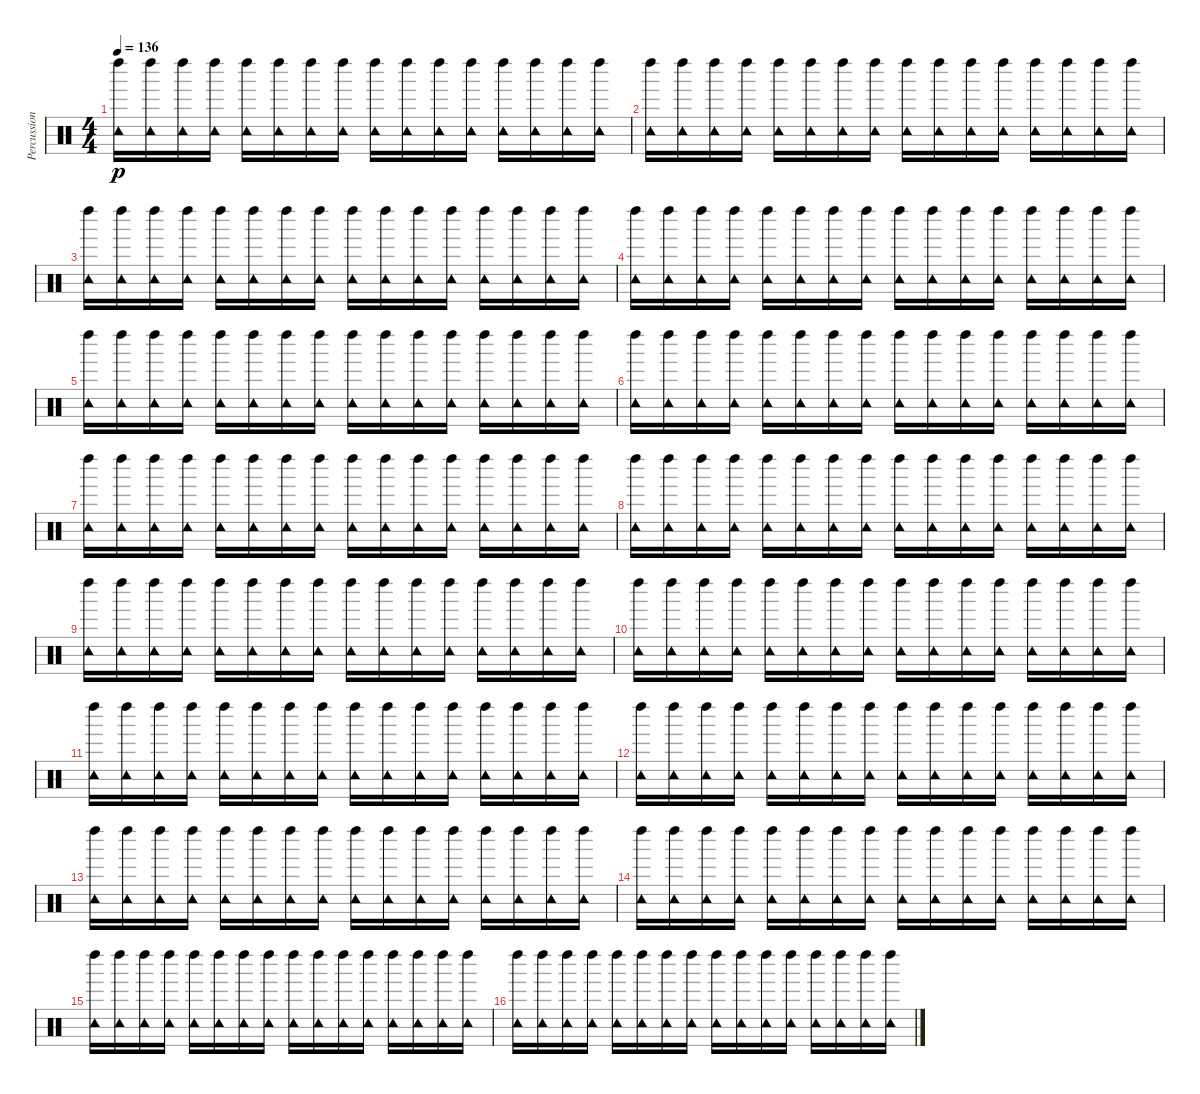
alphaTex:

\track ("Percussion" "Percussion") {instrument percussion}
\staff {score}
\articulation defaults
\ts (4 4)
\tempo 136
\clef neutral
\ks c
("Tambourine (hit)" "Left Maraca (hit)").16{dy p} ("Tambourine (hit)" "Left Maraca (hit)").16 ("Tambourine (hit)" "Left Maraca (hit)").16 ("Tambourine (hit)" "Left Maraca (hit)").16 ("Tambourine (hit)" "Left Maraca (hit)").16 ("Tambourine (hit)" "Left Maraca (hit)").16 ("Tambourine (hit)" "Left Maraca (hit)").16 ("Tambourine (hit)" "Left Maraca (hit)").16 ("Tambourine (hit)" "Left Maraca (hit)").16 ("Tambourine (hit)" "Left Maraca (hit)").16 ("Tambourine (hit)" "Left Maraca (hit)").16 ("Tambourine (hit)" "Left Maraca (hit)").16 ("Tambourine (hit)" "Left Maraca (hit)").16 ("Tambourine (hit)" "Left Maraca (hit)").16 ("Tambourine (hit)" "Left Maraca (hit)").16 ("Tambourine (hit)" "Left Maraca (hit)").16 |
("Tambourine (hit)" "Left Maraca (hit)").16 ("Tambourine (hit)" "Left Maraca (hit)").16 ("Tambourine (hit)" "Left Maraca (hit)").16 ("Tambourine (hit)" "Left Maraca (hit)").16 ("Tambourine (hit)" "Left Maraca (hit)").16 ("Tambourine (hit)" "Left Maraca (hit)").16 ("Tambourine (hit)" "Left Maraca (hit)").16 ("Tambourine (hit)" "Left Maraca (hit)").16 ("Tambourine (hit)" "Left Maraca (hit)").16 ("Tambourine (hit)" "Left Maraca (hit)").16 ("Tambourine (hit)" "Left Maraca (hit)").16 ("Tambourine (hit)" "Left Maraca (hit)").16 ("Tambourine (hit)" "Left Maraca (hit)").16 ("Tambourine (hit)" "Left Maraca (hit)").16 ("Tambourine (hit)" "Left Maraca (hit)").16 ("Tambourine (hit)" "Left Maraca (hit)").16 |
("Tambourine (hit)" "Left Maraca (hit)").16 ("Tambourine (hit)" "Left Maraca (hit)").16 ("Tambourine (hit)" "Left Maraca (hit)").16 ("Tambourine (hit)" "Left Maraca (hit)").16 ("Tambourine (hit)" "Left Maraca (hit)").16 ("Tambourine (hit)" "Left Maraca (hit)").16 ("Tambourine (hit)" "Left Maraca (hit)").16 ("Tambourine (hit)" "Left Maraca (hit)").16 ("Tambourine (hit)" "Left Maraca (hit)").16 ("Tambourine (hit)" "Left Maraca (hit)").16 ("Tambourine (hit)" "Left Maraca (hit)").16 ("Tambourine (hit)" "Left Maraca (hit)").16 ("Tambourine (hit)" "Left Maraca (hit)").16 ("Tambourine (hit)" "Left Maraca (hit)").16 ("Tambourine (hit)" "Left Maraca (hit)").16 ("Tambourine (hit)" "Left Maraca (hit)").16 |
("Tambourine (hit)" "Left Maraca (hit)").16 ("Tambourine (hit)" "Left Maraca (hit)").16 ("Tambourine (hit)" "Left Maraca (hit)").16 ("Tambourine (hit)" "Left Maraca (hit)").16 ("Tambourine (hit)" "Left Maraca (hit)").16 ("Tambourine (hit)" "Left Maraca (hit)").16 ("Tambourine (hit)" "Left Maraca (hit)").16 ("Tambourine (hit)" "Left Maraca (hit)").16 ("Tambourine (hit)" "Left Maraca (hit)").16 ("Tambourine (hit)" "Left Maraca (hit)").16 ("Tambourine (hit)" "Left Maraca (hit)").16 ("Tambourine (hit)" "Left Maraca (hit)").16 ("Tambourine (hit)" "Left Maraca (hit)").16 ("Tambourine (hit)" "Left Maraca (hit)").16 ("Tambourine (hit)" "Left Maraca (hit)").16 ("Tambourine (hit)" "Left Maraca (hit)").16 |
("Tambourine (hit)" "Left Maraca (hit)").16 ("Tambourine (hit)" "Left Maraca (hit)").16 ("Tambourine (hit)" "Left Maraca (hit)").16 ("Tambourine (hit)" "Left Maraca (hit)").16 ("Tambourine (hit)" "Left Maraca (hit)").16 ("Tambourine (hit)" "Left Maraca (hit)").16 ("Tambourine (hit)" "Left Maraca (hit)").16 ("Tambourine (hit)" "Left Maraca (hit)").16 ("Tambourine (hit)" "Left Maraca (hit)").16 ("Tambourine (hit)" "Left Maraca (hit)").16 ("Tambourine (hit)" "Left Maraca (hit)").16 ("Tambourine (hit)" "Left Maraca (hit)").16 ("Tambourine (hit)" "Left Maraca (hit)").16 ("Tambourine (hit)" "Left Maraca (hit)").16 ("Tambourine (hit)" "Left Maraca (hit)").16 ("Tambourine (hit)" "Left Maraca (hit)").16 |
("Tambourine (hit)" "Left Maraca (hit)").16 ("Tambourine (hit)" "Left Maraca (hit)").16 ("Tambourine (hit)" "Left Maraca (hit)").16 ("Tambourine (hit)" "Left Maraca (hit)").16 ("Tambourine (hit)" "Left Maraca (hit)").16 ("Tambourine (hit)" "Left Maraca (hit)").16 ("Tambourine (hit)" "Left Maraca (hit)").16 ("Tambourine (hit)" "Left Maraca (hit)").16 ("Tambourine (hit)" "Left Maraca (hit)").16 ("Tambourine (hit)" "Left Maraca (hit)").16 ("Tambourine (hit)" "Left Maraca (hit)").16 ("Tambourine (hit)" "Left Maraca (hit)").16 ("Tambourine (hit)" "Left Maraca (hit)").16 ("Tambourine (hit)" "Left Maraca (hit)").16 ("Tambourine (hit)" "Left Maraca (hit)").16 ("Tambourine (hit)" "Left Maraca (hit)").16 |
("Tambourine (hit)" "Left Maraca (hit)").16 ("Tambourine (hit)" "Left Maraca (hit)").16 ("Tambourine (hit)" "Left Maraca (hit)").16 ("Tambourine (hit)" "Left Maraca (hit)").16 ("Tambourine (hit)" "Left Maraca (hit)").16 ("Tambourine (hit)" "Left Maraca (hit)").16 ("Tambourine (hit)" "Left Maraca (hit)").16 ("Tambourine (hit)" "Left Maraca (hit)").16 ("Tambourine (hit)" "Left Maraca (hit)").16 ("Tambourine (hit)" "Left Maraca (hit)").16 ("Tambourine (hit)" "Left Maraca (hit)").16 ("Tambourine (hit)" "Left Maraca (hit)").16 ("Tambourine (hit)" "Left Maraca (hit)").16 ("Tambourine (hit)" "Left Maraca (hit)").16 ("Tambourine (hit)" "Left Maraca (hit)").16 ("Tambourine (hit)" "Left Maraca (hit)").16 |
("Tambourine (hit)" "Left Maraca (hit)").16 ("Tambourine (hit)" "Left Maraca (hit)").16 ("Tambourine (hit)" "Left Maraca (hit)").16 ("Tambourine (hit)" "Left Maraca (hit)").16 ("Tambourine (hit)" "Left Maraca (hit)").16 ("Tambourine (hit)" "Left Maraca (hit)").16 ("Tambourine (hit)" "Left Maraca (hit)").16 ("Tambourine (hit)" "Left Maraca (hit)").16 ("Tambourine (hit)" "Left Maraca (hit)").16 ("Tambourine (hit)" "Left Maraca (hit)").16 ("Tambourine (hit)" "Left Maraca (hit)").16 ("Tambourine (hit)" "Left Maraca (hit)").16 ("Tambourine (hit)" "Left Maraca (hit)").16 ("Tambourine (hit)" "Left Maraca (hit)").16 ("Tambourine (hit)" "Left Maraca (hit)").16 ("Tambourine (hit)" "Left Maraca (hit)").16 |
("Tambourine (hit)" "Left Maraca (hit)").16 ("Tambourine (hit)" "Left Maraca (hit)").16 ("Tambourine (hit)" "Left Maraca (hit)").16 ("Tambourine (hit)" "Left Maraca (hit)").16 ("Tambourine (hit)" "Left Maraca (hit)").16 ("Tambourine (hit)" "Left Maraca (hit)").16 ("Tambourine (hit)" "Left Maraca (hit)").16 ("Tambourine (hit)" "Left Maraca (hit)").16 ("Tambourine (hit)" "Left Maraca (hit)").16 ("Tambourine (hit)" "Left Maraca (hit)").16 ("Tambourine (hit)" "Left Maraca (hit)").16 ("Tambourine (hit)" "Left Maraca (hit)").16 ("Tambourine (hit)" "Left Maraca (hit)").16 ("Tambourine (hit)" "Left Maraca (hit)").16 ("Tambourine (hit)" "Left Maraca (hit)").16 ("Tambourine (hit)" "Left Maraca (hit)").16 |
("Tambourine (hit)" "Left Maraca (hit)").16 ("Tambourine (hit)" "Left Maraca (hit)").16 ("Tambourine (hit)" "Left Maraca (hit)").16 ("Tambourine (hit)" "Left Maraca (hit)").16 ("Tambourine (hit)" "Left Maraca (hit)").16 ("Tambourine (hit)" "Left Maraca (hit)").16 ("Tambourine (hit)" "Left Maraca (hit)").16 ("Tambourine (hit)" "Left Maraca (hit)").16 ("Tambourine (hit)" "Left Maraca (hit)").16 ("Tambourine (hit)" "Left Maraca (hit)").16 ("Tambourine (hit)" "Left Maraca (hit)").16 ("Tambourine (hit)" "Left Maraca (hit)").16 ("Tambourine (hit)" "Left Maraca (hit)").16 ("Tambourine (hit)" "Left Maraca (hit)").16 ("Tambourine (hit)" "Left Maraca (hit)").16 ("Tambourine (hit)" "Left Maraca (hit)").16 |
("Tambourine (hit)" "Left Maraca (hit)").16 ("Tambourine (hit)" "Left Maraca (hit)").16 ("Tambourine (hit)" "Left Maraca (hit)").16 ("Tambourine (hit)" "Left Maraca (hit)").16 ("Tambourine (hit)" "Left Maraca (hit)").16 ("Tambourine (hit)" "Left Maraca (hit)").16 ("Tambourine (hit)" "Left Maraca (hit)").16 ("Tambourine (hit)" "Left Maraca (hit)").16 ("Tambourine (hit)" "Left Maraca (hit)").16 ("Tambourine (hit)" "Left Maraca (hit)").16 ("Tambourine (hit)" "Left Maraca (hit)").16 ("Tambourine (hit)" "Left Maraca (hit)").16 ("Tambourine (hit)" "Left Maraca (hit)").16 ("Tambourine (hit)" "Left Maraca (hit)").16 ("Tambourine (hit)" "Left Maraca (hit)").16 ("Tambourine (hit)" "Left Maraca (hit)").16 |
("Tambourine (hit)" "Left Maraca (hit)").16 ("Tambourine (hit)" "Left Maraca (hit)").16 ("Tambourine (hit)" "Left Maraca (hit)").16 ("Tambourine (hit)" "Left Maraca (hit)").16 ("Tambourine (hit)" "Left Maraca (hit)").16 ("Tambourine (hit)" "Left Maraca (hit)").16 ("Tambourine (hit)" "Left Maraca (hit)").16 ("Tambourine (hit)" "Left Maraca (hit)").16 ("Tambourine (hit)" "Left Maraca (hit)").16 ("Tambourine (hit)" "Left Maraca (hit)").16 ("Tambourine (hit)" "Left Maraca (hit)").16 ("Tambourine (hit)" "Left Maraca (hit)").16 ("Tambourine (hit)" "Left Maraca (hit)").16 ("Tambourine (hit)" "Left Maraca (hit)").16 ("Tambourine (hit)" "Left Maraca (hit)").16 ("Tambourine (hit)" "Left Maraca (hit)").16 |
("Tambourine (hit)" "Left Maraca (hit)").16 ("Tambourine (hit)" "Left Maraca (hit)").16 ("Tambourine (hit)" "Left Maraca (hit)").16 ("Tambourine (hit)" "Left Maraca (hit)").16 ("Tambourine (hit)" "Left Maraca (hit)").16 ("Tambourine (hit)" "Left Maraca (hit)").16 ("Tambourine (hit)" "Left Maraca (hit)").16 ("Tambourine (hit)" "Left Maraca (hit)").16 ("Tambourine (hit)" "Left Maraca (hit)").16 ("Tambourine (hit)" "Left Maraca (hit)").16 ("Tambourine (hit)" "Left Maraca (hit)").16 ("Tambourine (hit)" "Left Maraca (hit)").16 ("Tambourine (hit)" "Left Maraca (hit)").16 ("Tambourine (hit)" "Left Maraca (hit)").16 ("Tambourine (hit)" "Left Maraca (hit)").16 ("Tambourine (hit)" "Left Maraca (hit)").16 |
("Tambourine (hit)" "Left Maraca (hit)").16 ("Tambourine (hit)" "Left Maraca (hit)").16 ("Tambourine (hit)" "Left Maraca (hit)").16 ("Tambourine (hit)" "Left Maraca (hit)").16 ("Tambourine (hit)" "Left Maraca (hit)").16 ("Tambourine (hit)" "Left Maraca (hit)").16 ("Tambourine (hit)" "Left Maraca (hit)").16 ("Tambourine (hit)" "Left Maraca (hit)").16 ("Tambourine (hit)" "Left Maraca (hit)").16 ("Tambourine (hit)" "Left Maraca (hit)").16 ("Tambourine (hit)" "Left Maraca (hit)").16 ("Tambourine (hit)" "Left Maraca (hit)").16 ("Tambourine (hit)" "Left Maraca (hit)").16 ("Tambourine (hit)" "Left Maraca (hit)").16 ("Tambourine (hit)" "Left Maraca (hit)").16 ("Tambourine (hit)" "Left Maraca (hit)").16 |
("Tambourine (hit)" "Left Maraca (hit)").16 ("Tambourine (hit)" "Left Maraca (hit)").16 ("Tambourine (hit)" "Left Maraca (hit)").16 ("Tambourine (hit)" "Left Maraca (hit)").16 ("Tambourine (hit)" "Left Maraca (hit)").16 ("Tambourine (hit)" "Left Maraca (hit)").16 ("Tambourine (hit)" "Left Maraca (hit)").16 ("Tambourine (hit)" "Left Maraca (hit)").16 ("Tambourine (hit)" "Left Maraca (hit)").16 ("Tambourine (hit)" "Left Maraca (hit)").16 ("Tambourine (hit)" "Left Maraca (hit)").16 ("Tambourine (hit)" "Left Maraca (hit)").16 ("Tambourine (hit)" "Left Maraca (hit)").16 ("Tambourine (hit)" "Left Maraca (hit)").16 ("Tambourine (hit)" "Left Maraca (hit)").16 ("Tambourine (hit)" "Left Maraca (hit)").16 |
("Tambourine (hit)" "Left Maraca (hit)").16 ("Tambourine (hit)" "Left Maraca (hit)").16 ("Tambourine (hit)" "Left Maraca (hit)").16 ("Tambourine (hit)" "Left Maraca (hit)").16 ("Tambourine (hit)" "Left Maraca (hit)").16 ("Tambourine (hit)" "Left Maraca (hit)").16 ("Tambourine (hit)" "Left Maraca (hit)").16 ("Tambourine (hit)" "Left Maraca (hit)").16 ("Tambourine (hit)" "Left Maraca (hit)").16 ("Tambourine (hit)" "Left Maraca (hit)").16 ("Tambourine (hit)" "Left Maraca (hit)").16 ("Tambourine (hit)" "Left Maraca (hit)").16 ("Tambourine (hit)" "Left Maraca (hit)").16 ("Tambourine (hit)" "Left Maraca (hit)").16 ("Tambourine (hit)" "Left Maraca (hit)").16 ("Tambourine (hit)" "Left Maraca (hit)").16
